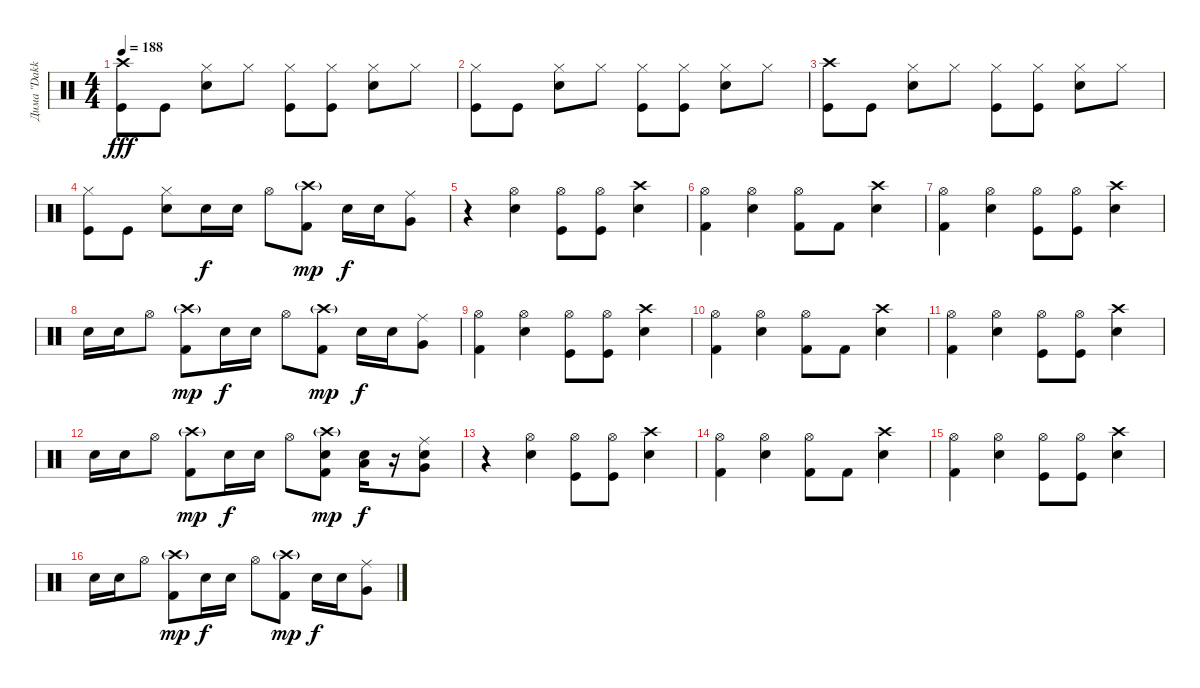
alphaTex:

\track ("Дима \"Dakkar\" Кеменов" "Дима \"Dakk") {instrument percussion}
\staff
\articulation defaults
\ts (4 4)
\tempo 188
\clef neutral
\ks c
("Crash high (hit)" "Kick (hit)").8{dy fff} "Kick (hit)".8 ("Hi-Hat (closed)" "Snare (hit) 2").8 "Hi-Hat (closed)".8 ("Hi-Hat (closed)" "Kick (hit)").8 ("Hi-Hat (closed)" "Kick (hit)").8 ("Hi-Hat (closed)" "Snare (hit) 2").8 "Hi-Hat (closed)".8 |
("Hi-Hat (closed)" "Kick (hit)").8 "Kick (hit)".8 ("Hi-Hat (closed)" "Snare (hit) 2").8 "Hi-Hat (closed)".8 ("Hi-Hat (closed)" "Kick (hit)").8 ("Hi-Hat (closed)" "Kick (hit)").8 ("Hi-Hat (closed)" "Snare (hit) 2").8 "Hi-Hat (closed)".8 |
("Crash high (hit)" "Kick (hit)").8 "Kick (hit)".8 ("Hi-Hat (closed)" "Snare (hit) 2").8 "Hi-Hat (closed)".8 ("Hi-Hat (closed)" "Kick (hit)").8 ("Hi-Hat (closed)" "Kick (hit)").8 ("Hi-Hat (closed)" "Snare (hit) 2").8 "Hi-Hat (closed)".8 |
("Hi-Hat (closed)" "Kick (hit)").8 "Kick (hit)".8 ("Hi-Hat (closed)" "Snare (hit) 2").8 "Electric Snare (hit)".16{dy f} "Electric Snare (hit)".16 "Hi-Hat (open)".8 ("Crash high (hit)"{g} "Kick (hit) 2").8{dy mp} "Electric Snare (hit)".16{dy f} "Electric Snare (hit)".16 ("Ride (middle)" "Very Low Tom (hit)").8 |
r.4 ("Hi-Hat (open)" "Electric Snare (hit)").4 ("Hi-Hat (open)" "Kick (hit)").8 ("Hi-Hat (open)" "Kick (hit)").8 ("Crash high (hit)" "Electric Snare (hit)").4 |
("Hi-Hat (open)" "Kick (hit) 2").4 ("Hi-Hat (open)" "Electric Snare (hit)").4 ("Hi-Hat (open)" "Kick (hit) 2").8 "Kick (hit) 2".8 ("Crash high (hit)" "Electric Snare (hit)").4 |
("Hi-Hat (open)" "Kick (hit) 2").4 ("Hi-Hat (open)" "Electric Snare (hit)").4 ("Hi-Hat (open)" "Kick (hit)").8 ("Hi-Hat (open)" "Kick (hit)").8 ("Crash high (hit)" "Electric Snare (hit)").4 |
"Electric Snare (hit)".16 "Electric Snare (hit)".16 "Hi-Hat (open)".8 ("Crash high (hit)"{g} "Kick (hit) 2").8{dy mp} "Electric Snare (hit)".16{dy f} "Electric Snare (hit)".16 "Hi-Hat (open)".8 ("Crash high (hit)"{g} "Kick (hit) 2").8{dy mp} "Electric Snare (hit)".16{dy f} "Electric Snare (hit)".16 ("Ride (middle)" "Very Low Tom (hit)").8 |
("Hi-Hat (open)" "Kick (hit) 2").4 ("Hi-Hat (open)" "Electric Snare (hit)").4 ("Hi-Hat (open)" "Kick (hit)").8 ("Hi-Hat (open)" "Kick (hit)").8 ("Crash high (hit)" "Electric Snare (hit)").4 |
("Hi-Hat (open)" "Kick (hit) 2").4 ("Hi-Hat (open)" "Electric Snare (hit)").4 ("Hi-Hat (open)" "Kick (hit) 2").8 "Kick (hit) 2".8 ("Crash high (hit)" "Electric Snare (hit)").4 |
("Hi-Hat (open)" "Kick (hit) 2").4 ("Hi-Hat (open)" "Electric Snare (hit)").4 ("Hi-Hat (open)" "Kick (hit)").8 ("Hi-Hat (open)" "Kick (hit)").8 ("Crash high (hit)" "Electric Snare (hit)").4 |
"Electric Snare (hit)".16 "Electric Snare (hit)".16 "Hi-Hat (open)".8 ("Crash high (hit)"{g} "Kick (hit) 2").8{dy mp} "Electric Snare (hit)".16{dy f} "Electric Snare (hit)".16 "Hi-Hat (open)".8 ("Electric Snare (hit)" "Crash high (hit)"{g} "Kick (hit) 2").8{dy mp} ("Low Floor Tom (hit)" "Hand Clap (hit)").16{dy f} r.16 ("Ride (middle)" "Hand Clap (hit)" "Very Low Tom (hit)").8 |
r.4 ("Hi-Hat (open)" "Electric Snare (hit)").4 ("Hi-Hat (open)" "Kick (hit)").8 ("Hi-Hat (open)" "Kick (hit)").8 ("Crash high (hit)" "Electric Snare (hit)").4 |
("Hi-Hat (open)" "Kick (hit) 2").4 ("Hi-Hat (open)" "Electric Snare (hit)").4 ("Hi-Hat (open)" "Kick (hit) 2").8 "Kick (hit) 2".8 ("Crash high (hit)" "Electric Snare (hit)").4 |
("Hi-Hat (open)" "Kick (hit) 2").4 ("Hi-Hat (open)" "Electric Snare (hit)").4 ("Hi-Hat (open)" "Kick (hit)").8 ("Hi-Hat (open)" "Kick (hit)").8 ("Crash high (hit)" "Electric Snare (hit)").4 |
"Electric Snare (hit)".16 "Electric Snare (hit)".16 "Hi-Hat (open)".8 ("Crash high (hit)"{g} "Kick (hit) 2").8{dy mp} "Electric Snare (hit)".16{dy f} "Electric Snare (hit)".16 "Hi-Hat (open)".8 ("Crash high (hit)"{g} "Kick (hit) 2").8{dy mp} "Electric Snare (hit)".16{dy f} "Electric Snare (hit)".16 ("Ride (middle)" "Very Low Tom (hit)").8
